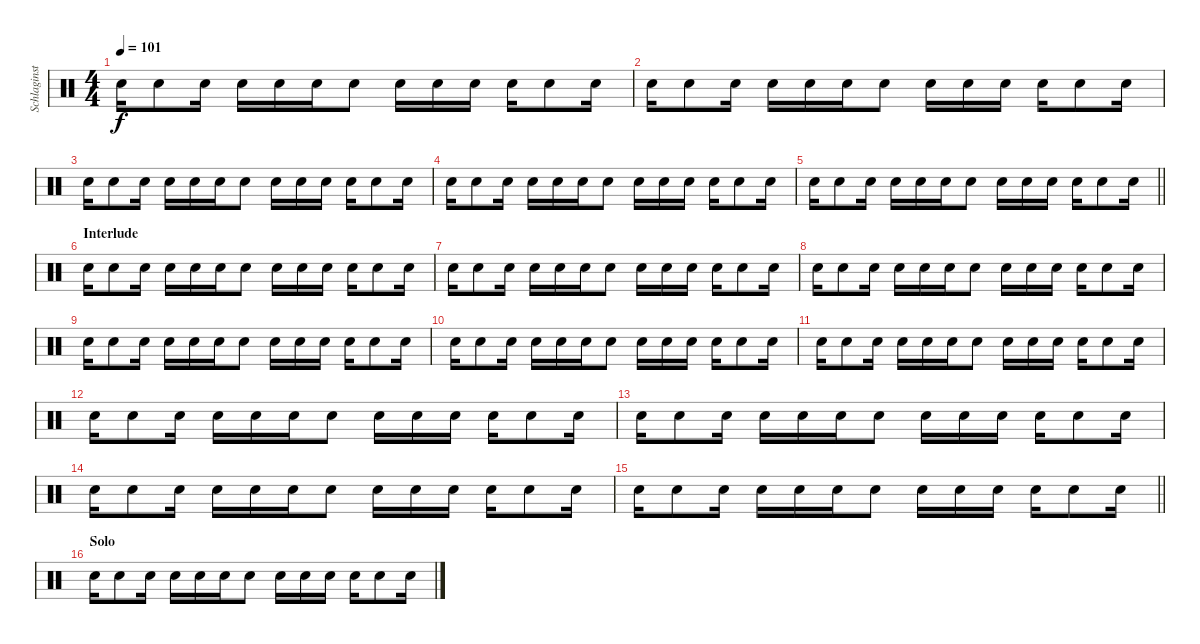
\track ("Schlaginstrumente - Auswahl" "Schlaginst") {instrument percussion}
\staff {score}
\articulation defaults
\ts (4 4)
\tempo 101
\clef neutral
\ks c "Electric Snare (hit)".16{dy f} "Electric Snare (hit)".8 "Electric Snare (hit)".16 "Electric Snare (hit)".16 "Electric Snare (hit)".16 "Electric Snare (hit)".16 "Electric Snare (hit)".8 "Electric Snare (hit)".16 "Electric Snare (hit)".16 "Electric Snare (hit)".16 "Electric Snare (hit)".16 "Electric Snare (hit)".8 "Electric Snare (hit)".16
|
"Electric Snare (hit)".16{volume 4} "Electric Snare (hit)".8 "Electric Snare (hit)".16 "Electric Snare (hit)".16 "Electric Snare (hit)".16 "Electric Snare (hit)".16 "Electric Snare (hit)".8 "Electric Snare (hit)".16 "Electric Snare (hit)".16 "Electric Snare (hit)".16 "Electric Snare (hit)".16 "Electric Snare (hit)".8 "Electric Snare (hit)".16 |
"Electric Snare (hit)".16 "Electric Snare (hit)".8 "Electric Snare (hit)".16 "Electric Snare (hit)".16 "Electric Snare (hit)".16 "Electric Snare (hit)".16 "Electric Snare (hit)".8 "Electric Snare (hit)".16 "Electric Snare (hit)".16 "Electric Snare (hit)".16 "Electric Snare (hit)".16 "Electric Snare (hit)".8 "Electric Snare (hit)".16 |
"Electric Snare (hit)".16 "Electric Snare (hit)".8 "Electric Snare (hit)".16 "Electric Snare (hit)".16 "Electric Snare (hit)".16 "Electric Snare (hit)".16 "Electric Snare (hit)".8 "Electric Snare (hit)".16 "Electric Snare (hit)".16 "Electric Snare (hit)".16 "Electric Snare (hit)".16 "Electric Snare (hit)".8 "Electric Snare (hit)".16 |
\barLineRight lightlight "Electric Snare (hit)".16 "Electric Snare (hit)".8 "Electric Snare (hit)".16 "Electric Snare (hit)".16 "Electric Snare (hit)".16 "Electric Snare (hit)".16 "Electric Snare (hit)".8 "Electric Snare (hit)".16 "Electric Snare (hit)".16 "Electric Snare (hit)".16 "Electric Snare (hit)".16 "Electric Snare (hit)".8 "Electric Snare (hit)".16
|
\section ("" "Interlude")
"Electric Snare (hit)".16 "Electric Snare (hit)".8 "Electric Snare (hit)".16 "Electric Snare (hit)".16 "Electric Snare (hit)".16 "Electric Snare (hit)".16 "Electric Snare (hit)".8 "Electric Snare (hit)".16 "Electric Snare (hit)".16 "Electric Snare (hit)".16 "Electric Snare (hit)".16 "Electric Snare (hit)".8 "Electric Snare (hit)".16 |
"Electric Snare (hit)".16 "Electric Snare (hit)".8 "Electric Snare (hit)".16 "Electric Snare (hit)".16 "Electric Snare (hit)".16 "Electric Snare (hit)".16 "Electric Snare (hit)".8 "Electric Snare (hit)".16 "Electric Snare (hit)".16 "Electric Snare (hit)".16 "Electric Snare (hit)".16 "Electric Snare (hit)".8 "Electric Snare (hit)".16 |
"Electric Snare (hit)".16 "Electric Snare (hit)".8 "Electric Snare (hit)".16 "Electric Snare (hit)".16 "Electric Snare (hit)".16 "Electric Snare (hit)".16 "Electric Snare (hit)".8 "Electric Snare (hit)".16 "Electric Snare (hit)".16 "Electric Snare (hit)".16 "Electric Snare (hit)".16 "Electric Snare (hit)".8 "Electric Snare (hit)".16 |
"Electric Snare (hit)".16 "Electric Snare (hit)".8 "Electric Snare (hit)".16 "Electric Snare (hit)".16 "Electric Snare (hit)".16 "Electric Snare (hit)".16 "Electric Snare (hit)".8 "Electric Snare (hit)".16 "Electric Snare (hit)".16 "Electric Snare (hit)".16 "Electric Snare (hit)".16 "Electric Snare (hit)".8 "Electric Snare (hit)".16 |
"Electric Snare (hit)".16 "Electric Snare (hit)".8 "Electric Snare (hit)".16 "Electric Snare (hit)".16 "Electric Snare (hit)".16 "Electric Snare (hit)".16 "Electric Snare (hit)".8 "Electric Snare (hit)".16 "Electric Snare (hit)".16 "Electric Snare (hit)".16 "Electric Snare (hit)".16 "Electric Snare (hit)".8 "Electric Snare (hit)".16 |
"Electric Snare (hit)".16 "Electric Snare (hit)".8 "Electric Snare (hit)".16 "Electric Snare (hit)".16 "Electric Snare (hit)".16 "Electric Snare (hit)".16 "Electric Snare (hit)".8 "Electric Snare (hit)".16 "Electric Snare (hit)".16 "Electric Snare (hit)".16 "Electric Snare (hit)".16 "Electric Snare (hit)".8 "Electric Snare (hit)".16 |
"Electric Snare (hit)".16 "Electric Snare (hit)".8 "Electric Snare (hit)".16 "Electric Snare (hit)".16 "Electric Snare (hit)".16 "Electric Snare (hit)".16 "Electric Snare (hit)".8 "Electric Snare (hit)".16 "Electric Snare (hit)".16 "Electric Snare (hit)".16 "Electric Snare (hit)".16 "Electric Snare (hit)".8 "Electric Snare (hit)".16 |
"Electric Snare (hit)".16 "Electric Snare (hit)".8 "Electric Snare (hit)".16 "Electric Snare (hit)".16 "Electric Snare (hit)".16 "Electric Snare (hit)".16 "Electric Snare (hit)".8 "Electric Snare (hit)".16 "Electric Snare (hit)".16 "Electric Snare (hit)".16 "Electric Snare (hit)".16 "Electric Snare (hit)".8 "Electric Snare (hit)".16 |
"Electric Snare (hit)".16 "Electric Snare (hit)".8 "Electric Snare (hit)".16 "Electric Snare (hit)".16 "Electric Snare (hit)".16 "Electric Snare (hit)".16 "Electric Snare (hit)".8 "Electric Snare (hit)".16 "Electric Snare (hit)".16 "Electric Snare (hit)".16 "Electric Snare (hit)".16 "Electric Snare (hit)".8 "Electric Snare (hit)".16 |
\barLineRight lightlight "Electric Snare (hit)".16 "Electric Snare (hit)".8 "Electric Snare (hit)".16 "Electric Snare (hit)".16 "Electric Snare (hit)".16 "Electric Snare (hit)".16 "Electric Snare (hit)".8 "Electric Snare (hit)".16 "Electric Snare (hit)".16 "Electric Snare (hit)".16 "Electric Snare (hit)".16 "Electric Snare (hit)".8 "Electric Snare (hit)".16
|
\section ("" "Solo")
"Electric Snare (hit)".16 "Electric Snare (hit)".8 "Electric Snare (hit)".16 "Electric Snare (hit)".16 "Electric Snare (hit)".16 "Electric Snare (hit)".16 "Electric Snare (hit)".8 "Electric Snare (hit)".16 "Electric Snare (hit)".16 "Electric Snare (hit)".16 "Electric Snare (hit)".16 "Electric Snare (hit)".8 "Electric Snare (hit)".16
